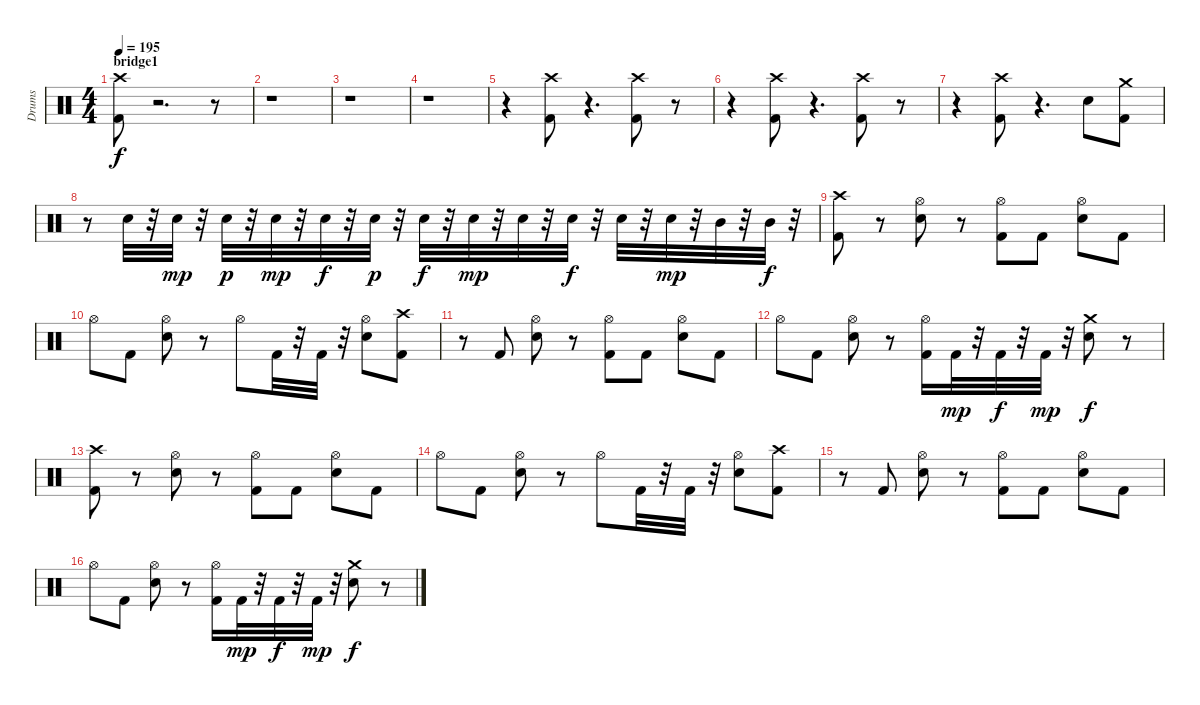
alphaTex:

\track ("Drums" "Drums") {instrument percussion}
\staff {score}
\articulation defaults
\ts (4 4)
\section ("" "bridge1")
\tempo 195
\clef neutral
\ks c
("Kick (hit) 2" "Crash high (hit)").8{dy f} r.2{d} r.8 |
r.1 |
r.1 |
r.1 |
r.4 ("Kick (hit) 2" "Crash high (hit)").8 r.4{d} ("Kick (hit) 2" "Crash high (hit)").8 r.8 |
r.4 ("Kick (hit) 2" "Crash high (hit)").8 r.4{d} ("Kick (hit) 2" "Crash high (hit)").8 r.8 |
r.4 ("Kick (hit) 2" "Crash high (hit)").8 r.4{d} "Electric Snare (hit)".8 ("Kick (hit) 2" "Crash medium (hit)").8 |
r.8 "Electric Snare (hit)".32 r.32 "Electric Snare (hit)".32{dy mp} r.32 "Electric Snare (hit)".32{dy p} r.32 "Electric Snare (hit)".32{dy mp} r.32 "Electric Snare (hit)".32{dy f} r.32 "Electric Snare (hit)".32{dy p} r.32 "Electric Snare (hit)".32{dy f} r.32 "Electric Snare (hit)".32{dy mp} r.32 "Electric Snare (hit)".32 r.32 "Electric Snare (hit)".32{dy f} r.32 "Electric Snare (hit)".32 r.32 "Electric Snare (hit)".32{dy mp} r.32 "Mid Tom (hit)".32 r.32 "Mid Tom (hit)".32{dy f} r.32 |
("Kick (hit) 2" "Crash high (hit)").8 r.8 ("Electric Snare (hit)" "Hi-Hat (open)").8 r.8 ("Hi-Hat (open)" "Kick (hit) 2").8 "Kick (hit) 2".8 ("Electric Snare (hit)" "Hi-Hat (open)").8 "Kick (hit) 2".8 |
"Hi-Hat (open)".8 "Kick (hit) 2".8 ("Electric Snare (hit)" "Hi-Hat (open)").8 r.8 "Hi-Hat (open)".8 "Kick (hit) 2".32 r.32 "Kick (hit) 2".32 r.32 ("Electric Snare (hit)" "Hi-Hat (open)").8 ("Kick (hit) 2" "Crash high (hit)").8 |
r.8 "Kick (hit) 2".8 ("Electric Snare (hit)" "Hi-Hat (open)").8 r.8 ("Hi-Hat (open)" "Kick (hit) 2").8 "Kick (hit) 2".8 ("Electric Snare (hit)" "Hi-Hat (open)").8 "Kick (hit) 2".8 |
"Hi-Hat (open)".8 "Kick (hit) 2".8 ("Electric Snare (hit)" "Hi-Hat (open)").8 r.8 ("Kick (hit) 2" "Hi-Hat (open)").16 "Kick (hit) 2".32{dy mp} r.32 "Kick (hit) 2".32{dy f} r.32 "Kick (hit) 2".32{dy mp} r.32 ("Electric Snare (hit)" "Crash medium (hit)").8{dy f} r.8 |
("Kick (hit) 2" "Crash high (hit)").8 r.8 ("Electric Snare (hit)" "Hi-Hat (open)").8 r.8 ("Hi-Hat (open)" "Kick (hit) 2").8 "Kick (hit) 2".8 ("Electric Snare (hit)" "Hi-Hat (open)").8 "Kick (hit) 2".8 |
"Hi-Hat (open)".8 "Kick (hit) 2".8 ("Electric Snare (hit)" "Hi-Hat (open)").8 r.8 "Hi-Hat (open)".8 "Kick (hit) 2".32 r.32 "Kick (hit) 2".32 r.32 ("Electric Snare (hit)" "Hi-Hat (open)").8 ("Kick (hit) 2" "Crash high (hit)").8 |
r.8 "Kick (hit) 2".8 ("Electric Snare (hit)" "Hi-Hat (open)").8 r.8 ("Hi-Hat (open)" "Kick (hit) 2").8 "Kick (hit) 2".8 ("Electric Snare (hit)" "Hi-Hat (open)").8 "Kick (hit) 2".8 |
"Hi-Hat (open)".8 "Kick (hit) 2".8 ("Electric Snare (hit)" "Hi-Hat (open)").8 r.8 ("Kick (hit) 2" "Hi-Hat (open)").16 "Kick (hit) 2".32{dy mp} r.32 "Kick (hit) 2".32{dy f} r.32 "Kick (hit) 2".32{dy mp} r.32 ("Electric Snare (hit)" "Crash medium (hit)").8{dy f} r.8
